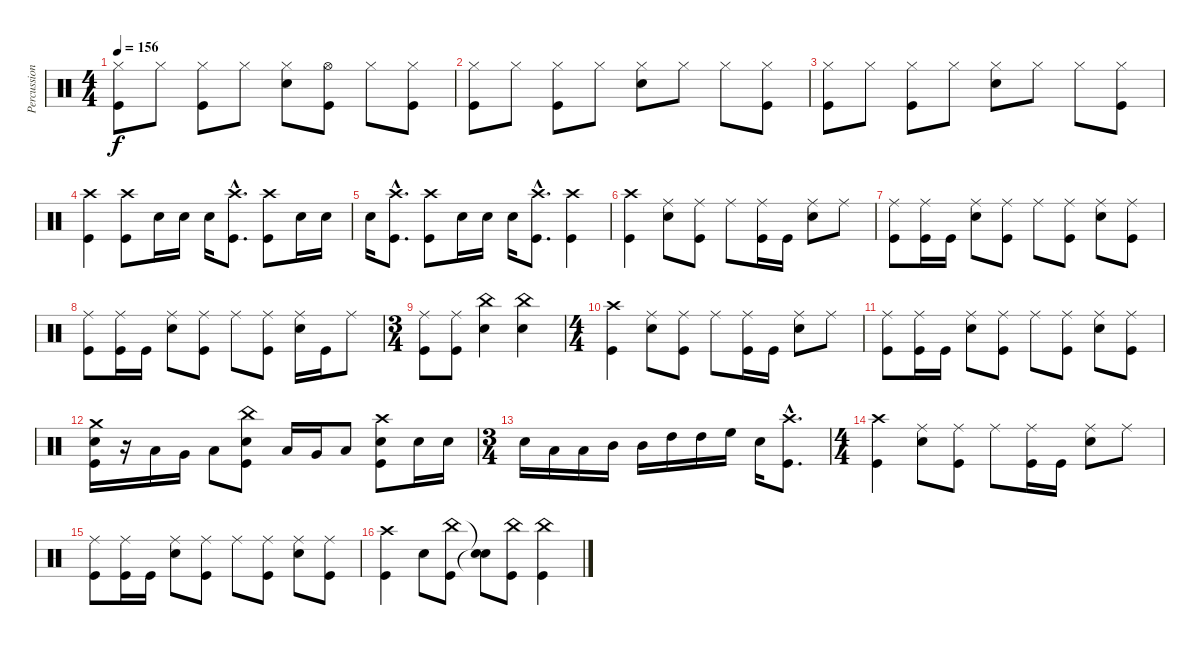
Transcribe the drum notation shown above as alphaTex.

\track ("Percussion" "Percussion") {instrument percussion}
\staff {score}
\articulation defaults
\ts (4 4)
\tempo 156
\clef neutral
\ks c
("Hi-Hat (closed)" "Kick (hit)").8{dy f} "Hi-Hat (closed)".8 ("Hi-Hat (closed)" "Kick (hit)").8 "Hi-Hat (closed)".8 ("Hi-Hat (closed)" "Electric Snare (hit)").8 ("Hi-Hat (open)" "Kick (hit)").8 "Hi-Hat (closed)".8 ("Hi-Hat (closed)" "Kick (hit)").8 |
("Hi-Hat (closed)" "Kick (hit)").8 "Hi-Hat (closed)".8 ("Hi-Hat (closed)" "Kick (hit)").8 "Hi-Hat (closed)".8 ("Hi-Hat (closed)" "Electric Snare (hit)").8 "Hi-Hat (closed)".8 "Hi-Hat (closed)".8 ("Hi-Hat (closed)" "Kick (hit)").8 |
("Hi-Hat (closed)" "Kick (hit)").8 "Hi-Hat (closed)".8 ("Hi-Hat (closed)" "Kick (hit)").8 "Hi-Hat (closed)".8 ("Hi-Hat (closed)" "Electric Snare (hit)").8 "Hi-Hat (closed)".8 "Hi-Hat (closed)".8 ("Hi-Hat (closed)" "Kick (hit)").8 |
("Crash high (hit)" "Kick (hit)").4 ("Crash high (hit)" "Kick (hit)").8 "Electric Snare (hit)".16 "Electric Snare (hit)".16 "Electric Snare (hit)".16 ("Crash high (hit)"{hac} "Kick (hit)"{hac}).8{d} ("Crash high (hit)" "Kick (hit)").8 "Electric Snare (hit)".16 "Electric Snare (hit)".16 |
"Electric Snare (hit)".16 ("Crash high (hit)"{hac} "Kick (hit)"{hac}).8{d} ("Crash high (hit)" "Kick (hit)").8 "Electric Snare (hit)".16 "Electric Snare (hit)".16 "Electric Snare (hit)".16 ("Crash high (hit)"{hac} "Kick (hit)"{hac}).8{d} ("Crash high (hit)" "Kick (hit)").4 |
("Crash high (hit)" "Kick (hit)").4 ("Ride (middle)" "Electric Snare (hit)").8 ("Ride (middle)" "Kick (hit)").8 "Ride (middle)".8 ("Ride (middle)" "Kick (hit)").16 "Kick (hit)".16 ("Ride (middle)" "Electric Snare (hit)").8 "Ride (middle)".8 |
("Ride (middle)" "Kick (hit)").8 ("Ride (middle)" "Kick (hit)").16 "Kick (hit)".16 ("Ride (middle)" "Electric Snare (hit)").8 ("Ride (middle)" "Kick (hit)").8 "Ride (middle)".8 ("Ride (middle)" "Kick (hit)").8 ("Ride (middle)" "Electric Snare (hit)").8 ("Ride (middle)" "Kick (hit)").8 |
("Ride (middle)" "Kick (hit)").8 ("Ride (middle)" "Kick (hit)").16 "Kick (hit)".16 ("Ride (middle)" "Electric Snare (hit)").8 ("Ride (middle)" "Kick (hit)").8 "Ride (middle)".8 ("Ride (middle)" "Kick (hit)").8 ("Ride (middle)" "Electric Snare (hit)").16 "Kick (hit)".16 "Ride (middle)".8 |
\ts (3 4)
("Ride (middle)" "Kick (hit)").8 ("Ride (middle)" "Kick (hit)").8 ("China (hit)" "Electric Snare (hit)").4 ("China (hit)" "Electric Snare (hit)").4 |
\ts (4 4)
("Crash high (hit)" "Kick (hit)").4 ("Ride (middle)" "Electric Snare (hit)").8 ("Ride (middle)" "Kick (hit)").8 "Ride (middle)".8 ("Ride (middle)" "Kick (hit)").16 "Kick (hit)".16 ("Ride (middle)" "Electric Snare (hit)").8 "Ride (middle)".8 |
("Ride (middle)" "Kick (hit)").8 ("Ride (middle)" "Kick (hit)").16 "Kick (hit)".16 ("Ride (middle)" "Electric Snare (hit)").8 ("Ride (middle)" "Kick (hit)").8 "Ride (middle)".8 ("Ride (middle)" "Kick (hit)").8 ("Ride (middle)" "Electric Snare (hit)").8 ("Ride (middle)" "Kick (hit)").8 |
("Crash medium (hit)" "Electric Snare (hit)" "Kick (hit)").16 r.16 "Low Floor Tom (hit)".16 "Very Low Tom (hit)".16 "Low Floor Tom (hit)".8 ("China (hit)" "Electric Snare (hit)" "Kick (hit)").8 "Low Floor Tom (hit)".16 "Very Low Tom (hit)".16 "Low Floor Tom (hit)".8 ("Crash high (hit)" "Electric Snare (hit)" "Kick (hit)").8 "Electric Snare (hit)".16 "Electric Snare (hit)".16 |
\ts (3 4)
"Electric Snare (hit)".16 "Low Tom (hit)".16 "Low Tom (hit)".16 "Mid Tom (hit)".16 "Mid Tom (hit)".16 "High Tom (hit)".16 "High Tom (hit)".16 "High Floor Tom (hit)".16 "Electric Snare (hit)".16 ("Crash high (hit)"{hac} "Kick (hit)"{hac}).8{d} |
\ts (4 4)
("Crash high (hit)" "Kick (hit)").4 ("Ride (middle)" "Electric Snare (hit)").8 ("Ride (middle)" "Kick (hit)").8 "Ride (middle)".8 ("Ride (middle)" "Kick (hit)").16 "Kick (hit)".16 ("Ride (middle)" "Electric Snare (hit)").8 "Ride (middle)".8 |
("Ride (middle)" "Kick (hit)").8 ("Ride (middle)" "Kick (hit)").16 "Kick (hit)".16 ("Ride (middle)" "Electric Snare (hit)").8 ("Ride (middle)" "Kick (hit)").8 "Ride (middle)".8 ("Ride (middle)" "Kick (hit)").8 ("Ride (middle)" "Electric Snare (hit)").8 ("Ride (middle)" "Kick (hit)").8 |
("Crash high (hit)" "Kick (hit)").4 "Electric Snare (hit)".8 ("China (hit)" "Kick (hit)").8 ("Snare (hit)"{t} "Snare (hit)"{t}).8 ("China (hit)" "Kick (hit)").8 ("China (hit)" "Kick (hit)").4
